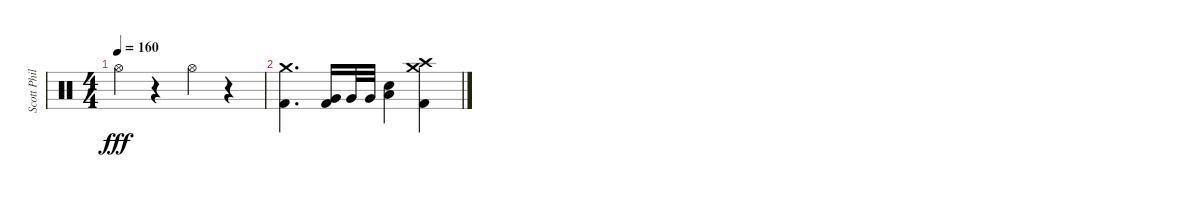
\track ("Scott Phillips [Drums]" "Scott Phil") {instrument percussion}
\staff {score}
\articulation defaults
\ts (4 4)
\tempo 160
\clef neutral
\ks c "Hi-Hat (open)".4{dy fff}
r.4 "Hi-Hat (open)".4 r.4 |
("Crash medium (hit)" "Kick (hit) 2").4{d} ("Very Low Tom (hit)" "Kick (hit) 2").16 "Very Low Tom (hit)".32 "Very Low Tom (hit)".32 ("Low Floor Tom (hit)" "Electric Snare (hit)").4 ("Crash high (hit)" "Crash medium (hit)" "Kick (hit) 2").4
